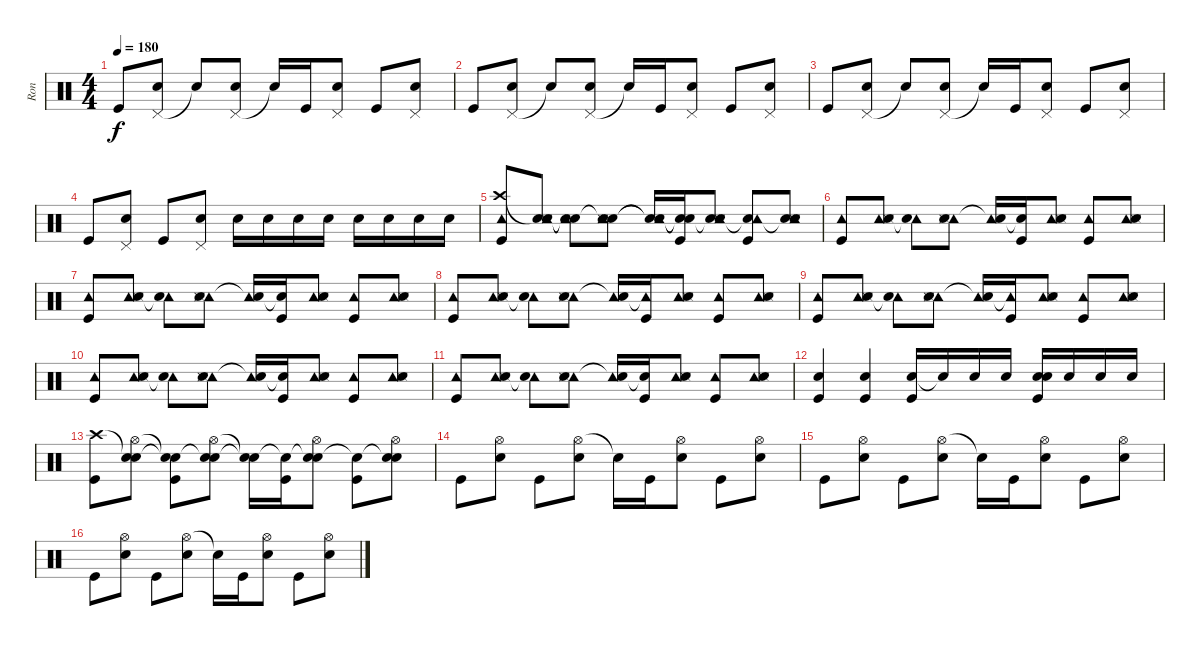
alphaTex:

\track ("Ron" "Ron") {instrument percussion}
\staff {score}
\articulation defaults
\ts (4 4)
\tempo 180
\clef neutral
\ks c "Kick (hit)".8{dy f}
("Pedal Hi-Hat (hit)" "Electric Snare (hit)").8 "Snare (hit)"{t}.8 ("Pedal Hi-Hat (hit)" "Electric Snare (hit)").8 "Snare (hit)"{t}.16 "Kick (hit)".16 ("Pedal Hi-Hat (hit)" "Electric Snare (hit)").8 "Kick (hit)".8 ("Pedal Hi-Hat (hit)" "Electric Snare (hit)").8 |
"Kick (hit)".8 ("Pedal Hi-Hat (hit)" "Electric Snare (hit)").8 "Snare (hit)"{t}.8 ("Pedal Hi-Hat (hit)" "Electric Snare (hit)").8 "Snare (hit)"{t}.16 "Kick (hit)".16 ("Pedal Hi-Hat (hit)" "Electric Snare (hit)").8 "Kick (hit)".8 ("Pedal Hi-Hat (hit)" "Electric Snare (hit)").8 |
"Kick (hit)".8 ("Pedal Hi-Hat (hit)" "Electric Snare (hit)").8 "Snare (hit)"{t}.8 ("Pedal Hi-Hat (hit)" "Electric Snare (hit)").8 "Snare (hit)"{t}.16 "Kick (hit)".16 ("Pedal Hi-Hat (hit)" "Electric Snare (hit)").8 "Kick (hit)".8 ("Pedal Hi-Hat (hit)" "Electric Snare (hit)").8 |
"Kick (hit)".8 ("Pedal Hi-Hat (hit)" "Electric Snare (hit)").8 "Kick (hit)".8 ("Pedal Hi-Hat (hit)" "Electric Snare (hit)").8 "Electric Snare (hit)".16 "Electric Snare (hit)".16 "Electric Snare (hit)".16 "Electric Snare (hit)".16 "Electric Snare (hit)".16 "Electric Snare (hit)".16 "Electric Snare (hit)".16 "Electric Snare (hit)".16 |
("Crash high (hit)" "Tambourine (hit)" "Kick (hit)").8 ("Snare (hit)"{t} "Tambourine (hit)" "Snare (side stick) 3" "Electric Snare (hit)").8 ("Snare (hit)"{t} "Tambourine (hit)" "Snare (hit)"{t}).8 ("Snare (hit)"{t} "Tambourine (hit)" "Snare (side stick) 3" "Electric Snare (hit)").8 ("Snare (hit)"{t} "Tambourine (hit)" "Snare (hit)"{t}).16 ("Snare (hit)"{t} "Snare (hit)"{t} "Kick (hit)").16 ("Snare (hit)"{t} "Tambourine (hit)" "Snare (side stick) 3" "Electric Snare (hit)").8 ("Snare (hit)"{t} "Tambourine (hit)" "Kick (hit)").8 ("Snare (hit)"{t} "Tambourine (hit)" "Snare (side stick) 3" "Electric Snare (hit)").8 |
("Tambourine (hit)" "Kick (hit)").8 ("Tambourine (hit)" "Snare (side stick) 3" "Electric Snare (hit)").8 ("Tambourine (hit)" "Snare (hit)"{t}).8 ("Tambourine (hit)" "Snare (side stick) 3" "Electric Snare (hit)").8 ("Tambourine (hit)" "Snare (hit)"{t}).16 ("Snare (hit)"{t} "Kick (hit)").16 ("Tambourine (hit)" "Snare (side stick) 3" "Electric Snare (hit)").8 ("Tambourine (hit)" "Kick (hit)").8 ("Tambourine (hit)" "Snare (side stick) 3" "Electric Snare (hit)").8 |
("Tambourine (hit)" "Kick (hit)").8 ("Tambourine (hit)" "Snare (side stick) 3" "Electric Snare (hit)").8 ("Tambourine (hit)" "Snare (hit)"{t}).8 ("Tambourine (hit)" "Snare (side stick) 3" "Electric Snare (hit)").8 ("Tambourine (hit)" "Snare (hit)"{t}).16 ("Snare (hit)"{t} "Kick (hit)").16 ("Tambourine (hit)" "Snare (side stick) 3" "Electric Snare (hit)").8 ("Tambourine (hit)" "Kick (hit)").8 ("Tambourine (hit)" "Snare (side stick) 3" "Electric Snare (hit)").8 |
("Tambourine (hit)" "Kick (hit)").8 ("Tambourine (hit)" "Snare (side stick) 3" "Electric Snare (hit)").8 ("Tambourine (hit)" "Snare (hit)"{t}).8 ("Tambourine (hit)" "Snare (side stick) 3" "Electric Snare (hit)").8 ("Tambourine (hit)" "Snare (hit)"{t}).16 ("Tambourine (hit)"{t} "Kick (hit)").16 ("Tambourine (hit)" "Snare (side stick) 3" "Electric Snare (hit)").8 ("Tambourine (hit)" "Kick (hit)").8 ("Tambourine (hit)" "Snare (side stick) 3" "Electric Snare (hit)").8 |
("Tambourine (hit)" "Kick (hit)").8 ("Tambourine (hit)" "Snare (side stick) 3" "Electric Snare (hit)").8 ("Tambourine (hit)" "Snare (hit)"{t}).8 ("Tambourine (hit)" "Snare (side stick) 3" "Electric Snare (hit)").8 ("Tambourine (hit)" "Snare (hit)"{t}).16 ("Tambourine (hit)"{t} "Kick (hit)").16 ("Tambourine (hit)" "Snare (side stick) 3" "Electric Snare (hit)").8 ("Tambourine (hit)" "Kick (hit)").8 ("Tambourine (hit)" "Snare (side stick) 3" "Electric Snare (hit)").8 |
("Tambourine (hit)" "Kick (hit)").8 ("Tambourine (hit)" "Snare (side stick) 3" "Electric Snare (hit)").8 ("Tambourine (hit)" "Snare (hit)"{t}).8 ("Tambourine (hit)" "Snare (side stick) 3" "Electric Snare (hit)").8 ("Tambourine (hit)" "Snare (hit)"{t}).16 ("Snare (hit)"{t} "Kick (hit)").16 ("Tambourine (hit)" "Snare (side stick) 3" "Electric Snare (hit)").8 ("Tambourine (hit)" "Kick (hit)").8 ("Tambourine (hit)" "Snare (side stick) 3" "Electric Snare (hit)").8 |
("Tambourine (hit)" "Kick (hit)").8 ("Tambourine (hit)" "Snare (side stick) 3" "Electric Snare (hit)").8 ("Tambourine (hit)" "Snare (hit)"{t}).8 ("Tambourine (hit)" "Snare (side stick) 3" "Electric Snare (hit)").8 ("Tambourine (hit)" "Snare (hit)"{t}).16 ("Snare (hit)"{t} "Kick (hit)").16 ("Tambourine (hit)" "Snare (side stick) 3" "Electric Snare (hit)").8 ("Tambourine (hit)" "Kick (hit)").8 ("Tambourine (hit)" "Snare (side stick) 3" "Electric Snare (hit)").8 |
("Electric Snare (hit)" "Kick (hit)").4 ("Electric Snare (hit)" "Kick (hit)").4 ("Electric Snare (hit)" "Kick (hit)").16 "Snare (hit)"{t}.16 "Electric Snare (hit)".16 "Electric Snare (hit)".16 ("Electric Snare (hit)" "Kick (hit)" "Electric Snare (hit)").16 "Electric Snare (hit)".16 "Electric Snare (hit)".16 "Electric Snare (hit)".16 |
("Crash high (hit)" "Kick (hit)").8 ("Snare (hit)"{t} "Hi-Hat (open)" "Electric Snare (hit)").8 ("Snare (hit)"{t} "Snare (hit)"{t} "Kick (hit)").8 ("Snare (hit)"{t} "Hi-Hat (open)" "Electric Snare (hit)").8 ("Snare (hit)"{t} "Snare (hit)"{t}).16 ("Snare (hit)"{t} "Kick (hit)").16 ("Snare (hit)"{t} "Hi-Hat (open)" "Electric Snare (hit)").8 ("Snare (hit)"{t} "Kick (hit)").8 ("Snare (hit)"{t} "Hi-Hat (open)" "Electric Snare (hit)").8 |
"Kick (hit)".8 ("Hi-Hat (open)" "Electric Snare (hit)").8 "Kick (hit)".8 ("Hi-Hat (open)" "Electric Snare (hit)").8 "Snare (hit)"{t}.16 "Kick (hit)".16 ("Hi-Hat (open)" "Electric Snare (hit)").8 "Kick (hit)".8 ("Hi-Hat (open)" "Electric Snare (hit)").8 |
"Kick (hit)".8 ("Hi-Hat (open)" "Electric Snare (hit)").8 "Kick (hit)".8 ("Hi-Hat (open)" "Electric Snare (hit)").8 "Snare (hit)"{t}.16 "Kick (hit)".16 ("Hi-Hat (open)" "Electric Snare (hit)").8 "Kick (hit)".8 ("Hi-Hat (open)" "Electric Snare (hit)").8 |
"Kick (hit)".8 ("Hi-Hat (open)" "Electric Snare (hit)").8 "Kick (hit)".8 ("Hi-Hat (open)" "Electric Snare (hit)").8 "Snare (hit)"{t}.16 "Kick (hit)".16 ("Hi-Hat (open)" "Electric Snare (hit)").8 "Kick (hit)".8 ("Hi-Hat (open)" "Electric Snare (hit)").8
